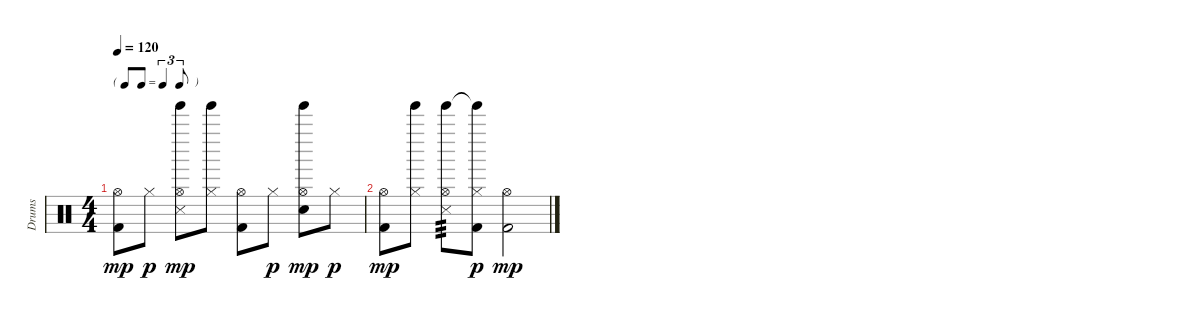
\track ("Drums" "Drums") {instrument percussion}
\staff {score}
\articulation defaults
\ts (4 4)
\tf triplet8th
\tempo 120
\clef neutral
\ks c
("Hi-Hat (open)" "Kick (hit) 2").8{dy mp} "Hi-Hat (closed)".8{dy p} ("Hi-Hat (open)" "Snare (side stick) 3" "Tinkle Bell (hit)").8{dy mp} ("Hi-Hat (closed)" "Tinkle Bell (hit)").8 ("Hi-Hat (open)" "Kick (hit) 2").8 "Hi-Hat (closed)".8{dy p} ("Hi-Hat (open)" "Snare (hit) 2" "Tinkle Bell (hit)").8{dy mp} "Hi-Hat (closed)".8{dy p} |
("Hi-Hat (open)" "Kick (hit) 2").8{dy mp} ("Hi-Hat (closed)" "Tinkle Bell (hit)").8 ("Hi-Hat (open)" "Snare (side stick) 3" "Tinkle Bell (hit)").8{tp 3} ("Hi-Hat (closed)" "Kick (hit) 2" "Tinkle Bell (hit)"{t}).8{dy p} ("Hi-Hat (open)" "Kick (hit) 2").2{dy mp}
